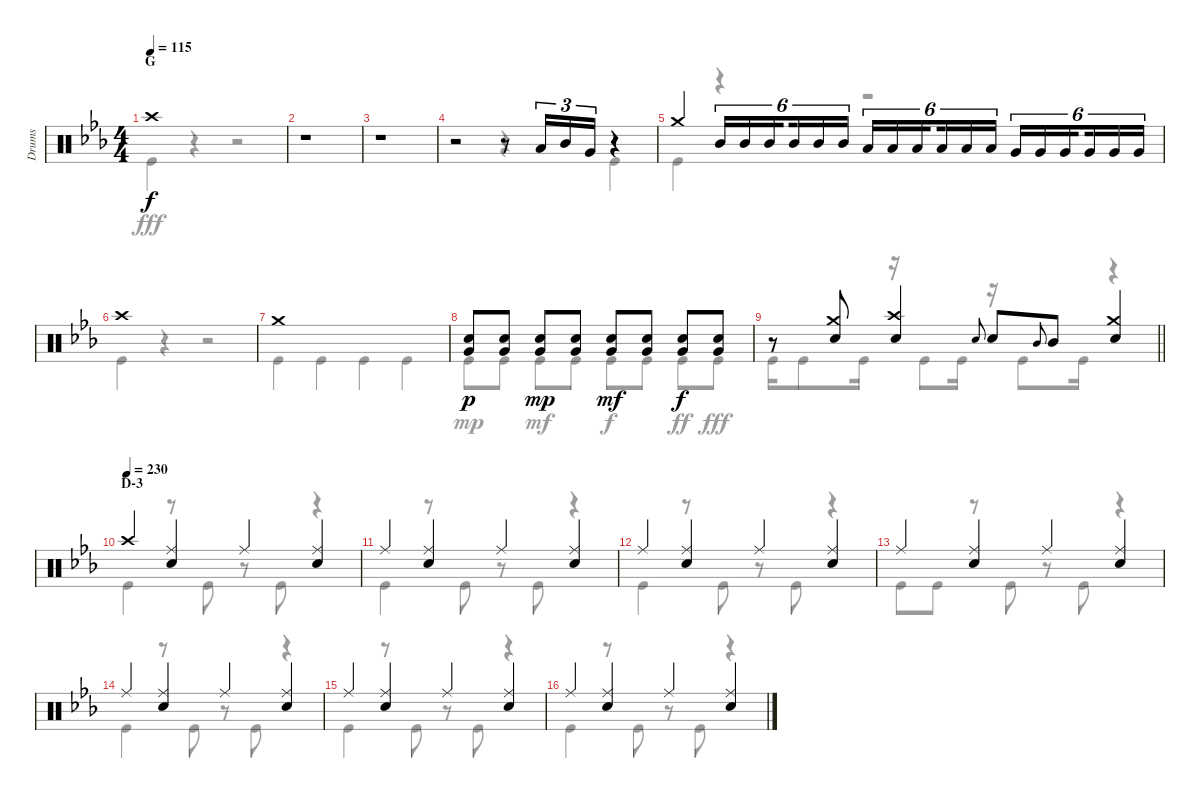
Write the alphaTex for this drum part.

\track ("Drums" "Drums") {instrument percussion}
\staff {score}
\articulation defaults
\voice
\ts (4 4)
\section ("" "G")
\tempo 115
\clef neutral
\ks eb "Crash high (hit)".1{dy f}
|
r.1 |
r.1 |
r.2 r.8 "Low Tom (hit)".16{tu (3 2)} "Mid Tom (hit)".16{tu (3 2)} "Very Low Tom (hit)".16{tu (3 2)} r.4 |
"Crash medium (hit)".4 "Mid Tom (hit)".16{tu (6 4)} "Mid Tom (hit)".16{tu (6 4)} "Mid Tom (hit)".16{tu (6 4) beam splitsecondary} "Mid Tom (hit)".16{tu (6 4)} "Mid Tom (hit)".16{tu (6 4)} "Mid Tom (hit)".16{tu (6 4)} "Low Tom (hit)".16{tu (6 4)} "Low Tom (hit)".16{tu (6 4)} "Low Tom (hit)".16{tu (6 4) beam splitsecondary} "Low Tom (hit)".16{tu (6 4)} "Low Tom (hit)".16{tu (6 4)} "Low Tom (hit)".16{tu (6 4)} "Very Low Tom (hit)".16{tu (6 4)} "Very Low Tom (hit)".16{tu (6 4)} "Very Low Tom (hit)".16{tu (6 4) beam splitsecondary} "Very Low Tom (hit)".16{tu (6 4)} "Very Low Tom (hit)".16{tu (6 4)} "Very Low Tom (hit)".16{tu (6 4)} |
"Crash high (hit)".1 |
"Crash medium (hit)".1 |
("Snare (hit) 2" "Very Low Tom (hit)").8{dy p} ("Snare (hit) 2" "Very Low Tom (hit)").8 ("Snare (hit) 2" "Very Low Tom (hit)").8{dy mp} ("Snare (hit) 2" "Very Low Tom (hit)").8 ("Snare (hit) 2" "Very Low Tom (hit)").8{dy mf} ("Snare (hit) 2" "Very Low Tom (hit)").8 ("Snare (hit) 2" "Very Low Tom (hit)").8{dy f} ("Snare (hit) 2" "Very Low Tom (hit)").8 |
\barLineRight lightlight
r.8 ("Crash medium (hit)" "Snare (hit) 2").8 ("Crash high (hit)" "Snare (hit) 2").4 "Snare (hit) 2".8{gr onbeat} "Snare (hit) 2".8 "Mid Tom (hit)".8{gr onbeat} "Mid Tom (hit)".8 ("Crash medium (hit)" "Snare (hit) 2").4 |
\section ("" "D-3")
\tempo (230)
"Crash high (hit)".4 ("Ride (middle)" "Snare (hit) 2").4 "Ride (middle)".4 ("Ride (middle)" "Snare (hit) 2").4 |
"Ride (middle)".4 ("Ride (middle)" "Snare (hit) 2").4 "Ride (middle)".4 ("Ride (middle)" "Snare (hit) 2").4 |
"Ride (middle)".4 ("Ride (middle)" "Snare (hit) 2").4 "Ride (middle)".4 ("Ride (middle)" "Snare (hit) 2").4 |
"Ride (middle)".4 ("Ride (middle)" "Snare (hit) 2").4 "Ride (middle)".4 ("Ride (middle)" "Snare (hit) 2").4 |
"Ride (middle)".4 ("Ride (middle)" "Snare (hit) 2").4 "Ride (middle)".4 ("Ride (middle)" "Snare (hit) 2").4 |
"Ride (middle)".4 ("Ride (middle)" "Snare (hit) 2").4 "Ride (middle)".4 ("Ride (middle)" "Snare (hit) 2").4 |
"Ride (middle)".4 ("Ride (middle)" "Snare (hit) 2").4 "Ride (middle)".4 ("Ride (middle)" "Snare (hit) 2").4
\voice
\clef neutral
\ottava regular
\simile none
\ks eb "Kick (hit)".4{dy fff}
r.4 r.2 |
r.1 |
r.1 |
r.2 r.4 "Kick (hit)".4 |
"Kick (hit)".4 r.4 r.2 |
"Kick (hit)".4 r.4 r.2 |
"Kick (hit)".4 "Kick (hit)".4 "Kick (hit)".4 "Kick (hit)".4 |
"Kick (hit)".8{dy mp} "Kick (hit)".8 "Kick (hit)".8{dy mf} "Kick (hit)".8 "Kick (hit)".8{dy f} "Kick (hit)".8 "Kick (hit)".8{dy ff} "Kick (hit)".8{dy fff} |
\barLineRight lightlight "Kick (hit)".16 "Kick (hit)".8 "Kick (hit)".16
r.16 "Kick (hit)".8 "Kick (hit)".16 r.16 "Kick (hit)".8 "Kick (hit)".16 r.4 |
"Kick (hit)".4 r.8 "Kick (hit)".8 r.8 "Kick (hit)".8 r.4 |
"Kick (hit)".4 r.8 "Kick (hit)".8 r.8 "Kick (hit)".8 r.4 |
"Kick (hit)".4 r.8 "Kick (hit)".8 r.8 "Kick (hit)".8 r.4 |
"Kick (hit)".8 "Kick (hit)".8 r.8 "Kick (hit)".8 r.8 "Kick (hit)".8 r.4 |
"Kick (hit)".4 r.8 "Kick (hit)".8 r.8 "Kick (hit)".8 r.4 |
"Kick (hit)".4 r.8 "Kick (hit)".8 r.8 "Kick (hit)".8 r.4 |
"Kick (hit)".4 r.8 "Kick (hit)".8 r.8 "Kick (hit)".8 r.4
